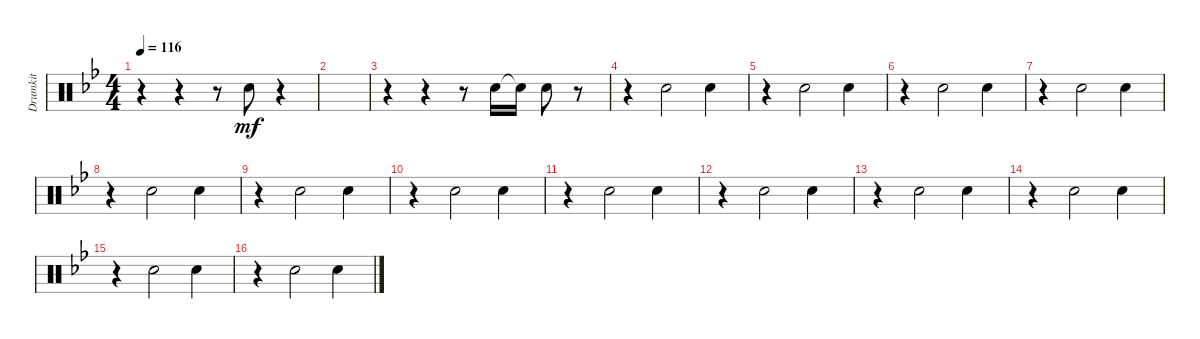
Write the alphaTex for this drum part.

\track ("Drumkit" "Drumkit") {instrument percussion}
\staff {score}
\articulation defaults
\ts (4 4)
\tempo 116
\clef neutral
\ks bb
r.4{dy mf} r.4 r.8 "Snare (hit) 2".8 r.4 |
|
r.4 r.4 r.8 "Snare (hit) 2".16 "Snare (hit) 2"{t}.16 "Snare (hit) 2".8 r.8 |
r.4 "Snare (hit) 2".2 "Snare (hit) 2".4 |
r.4 "Snare (hit) 2".2 "Snare (hit) 2".4 |
r.4 "Snare (hit) 2".2 "Snare (hit) 2".4 |
r.4 "Snare (hit) 2".2 "Snare (hit) 2".4 |
r.4 "Snare (hit) 2".2 "Snare (hit) 2".4 |
r.4 "Snare (hit) 2".2 "Snare (hit) 2".4 |
r.4 "Snare (hit) 2".2 "Snare (hit) 2".4 |
r.4 "Snare (hit) 2".2 "Snare (hit) 2".4 |
r.4 "Snare (hit) 2".2 "Snare (hit) 2".4 |
r.4 "Snare (hit) 2".2 "Snare (hit) 2".4 |
r.4 "Snare (hit) 2".2 "Snare (hit) 2".4 |
r.4 "Snare (hit) 2".2 "Snare (hit) 2".4 |
r.4 "Snare (hit) 2".2 "Snare (hit) 2".4
